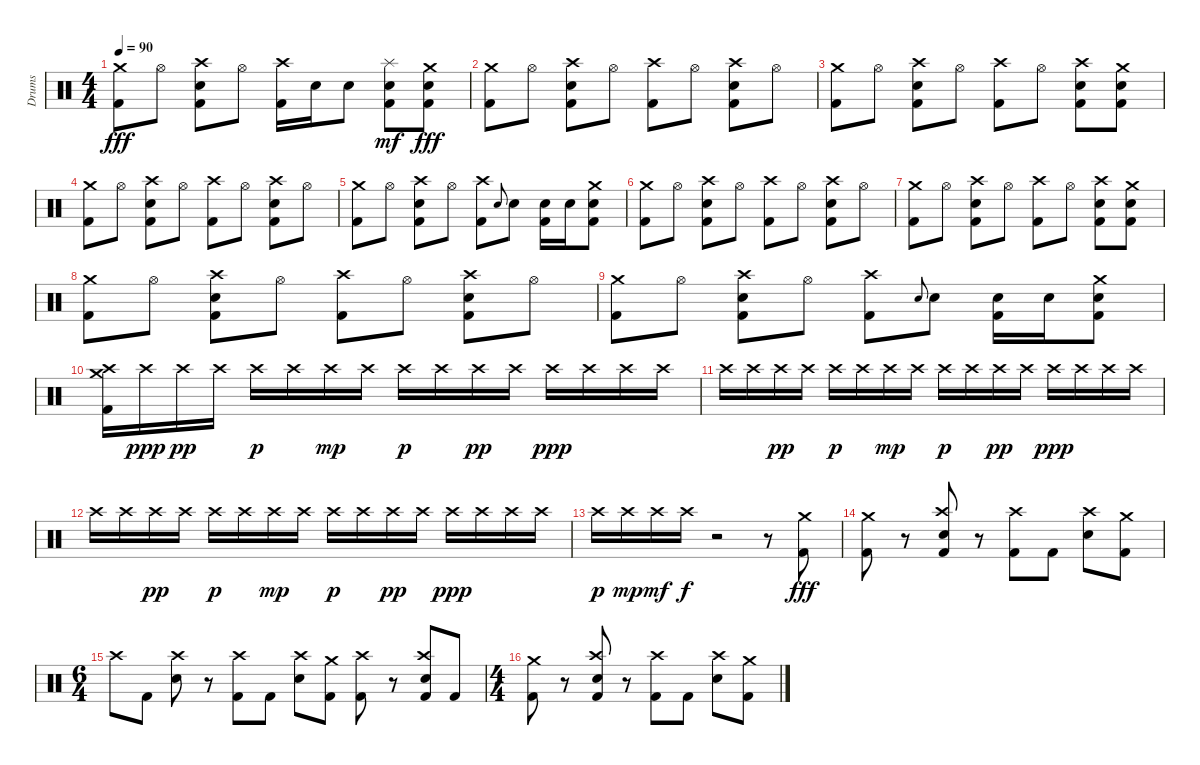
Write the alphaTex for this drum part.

\track ("Drums" "Drums") {instrument percussion}
\staff {score}
\articulation defaults
\ts (4 4)
\tempo 90
\clef neutral
\ks c
("Crash medium (hit)" "Kick (hit) 2").8{dy fff} "Hi-Hat (open)".8 ("Crash high (hit)" "Snare (hit) 2" "Kick (hit) 2").8 "Hi-Hat (open)".8 ("Crash high (hit)" "Kick (hit) 2").16 "Electric Snare (hit)".16 "Electric Snare (hit)".8 ("Splash (hit)" "Electric Snare (hit)" "Kick (hit) 2").8{dy mf} ("Crash medium (hit)" "Snare (hit) 2" "Kick (hit) 2").8{dy fff} |
("Crash medium (hit)" "Kick (hit) 2").8 "Hi-Hat (open)".8 ("Crash high (hit)" "Snare (hit) 2" "Kick (hit) 2").8 "Hi-Hat (open)".8 ("Crash high (hit)" "Kick (hit) 2").8 "Hi-Hat (open)".8 ("Crash high (hit)" "Snare (hit) 2" "Kick (hit) 2").8 "Hi-Hat (open)".8 |
("Crash medium (hit)" "Kick (hit) 2").8 "Hi-Hat (open)".8 ("Crash high (hit)" "Snare (hit) 2" "Kick (hit) 2").8 "Hi-Hat (open)".8 ("Crash high (hit)" "Kick (hit) 2").8 "Hi-Hat (open)".8 ("Crash high (hit)" "Snare (hit) 2" "Kick (hit) 2").8 ("Crash medium (hit)" "Snare (hit) 2" "Kick (hit) 2").8 |
("Crash medium (hit)" "Kick (hit) 2").8 "Hi-Hat (open)".8 ("Crash high (hit)" "Snare (hit) 2" "Kick (hit) 2").8 "Hi-Hat (open)".8 ("Crash high (hit)" "Kick (hit) 2").8 "Hi-Hat (open)".8 ("Crash high (hit)" "Snare (hit) 2" "Kick (hit) 2").8 "Hi-Hat (open)".8 |
("Crash medium (hit)" "Kick (hit) 2").8 "Hi-Hat (open)".8 ("Crash high (hit)" "Snare (hit) 2" "Kick (hit) 2").8 "Hi-Hat (open)".8 ("Crash high (hit)" "Kick (hit) 2").8 "Electric Snare (hit)".8{gr onbeat} "Electric Snare (hit)".8 ("Electric Snare (hit)" "Kick (hit) 2").16 "Electric Snare (hit)".16 ("Crash medium (hit)" "Snare (hit) 2" "Kick (hit) 2").8 |
("Crash medium (hit)" "Kick (hit) 2").8 "Hi-Hat (open)".8 ("Crash high (hit)" "Snare (hit) 2" "Kick (hit) 2").8 "Hi-Hat (open)".8 ("Crash high (hit)" "Kick (hit) 2").8 "Hi-Hat (open)".8 ("Crash high (hit)" "Snare (hit) 2" "Kick (hit) 2").8 "Hi-Hat (open)".8 |
("Crash medium (hit)" "Kick (hit) 2").8 "Hi-Hat (open)".8 ("Crash high (hit)" "Snare (hit) 2" "Kick (hit) 2").8 "Hi-Hat (open)".8 ("Crash high (hit)" "Kick (hit) 2").8 "Hi-Hat (open)".8 ("Crash high (hit)" "Snare (hit) 2" "Kick (hit) 2").8 ("Crash medium (hit)" "Snare (hit) 2" "Kick (hit) 2").8 |
("Crash medium (hit)" "Kick (hit) 2").8 "Hi-Hat (open)".8 ("Crash high (hit)" "Snare (hit) 2" "Kick (hit) 2").8 "Hi-Hat (open)".8 ("Crash high (hit)" "Kick (hit) 2").8 "Hi-Hat (open)".8 ("Crash high (hit)" "Snare (hit) 2" "Kick (hit) 2").8 "Hi-Hat (open)".8 |
("Crash medium (hit)" "Kick (hit) 2").8 "Hi-Hat (open)".8 ("Crash high (hit)" "Snare (hit) 2" "Kick (hit) 2").8 "Hi-Hat (open)".8 ("Crash high (hit)" "Kick (hit) 2").8 "Electric Snare (hit)".8{gr onbeat} "Electric Snare (hit)".8 ("Electric Snare (hit)" "Kick (hit) 2").16 "Electric Snare (hit)".16 ("Crash medium (hit)" "Snare (hit) 2" "Kick (hit) 2").8 |
("Crash high (hit)" "Crash medium (hit)" "Kick (hit) 2").16 "Crash high (hit)".16{dy ppp} "Crash high (hit)".16{dy pp} "Crash high (hit)".16 "Crash high (hit)".16{dy p} "Crash high (hit)".16 "Crash high (hit)".16{dy mp} "Crash high (hit)".16 "Crash high (hit)".16{dy p} "Crash high (hit)".16 "Crash high (hit)".16{dy pp} "Crash high (hit)".16 "Crash high (hit)".16{dy ppp} "Crash high (hit)".16 "Crash high (hit)".16 "Crash high (hit)".16 |
"Crash high (hit)".16 "Crash high (hit)".16 "Crash high (hit)".16{dy pp} "Crash high (hit)".16 "Crash high (hit)".16{dy p} "Crash high (hit)".16 "Crash high (hit)".16{dy mp} "Crash high (hit)".16 "Crash high (hit)".16{dy p} "Crash high (hit)".16 "Crash high (hit)".16{dy pp} "Crash high (hit)".16 "Crash high (hit)".16{dy ppp} "Crash high (hit)".16 "Crash high (hit)".16 "Crash high (hit)".16 |
"Crash high (hit)".16 "Crash high (hit)".16 "Crash high (hit)".16{dy pp} "Crash high (hit)".16 "Crash high (hit)".16{dy p} "Crash high (hit)".16 "Crash high (hit)".16{dy mp} "Crash high (hit)".16 "Crash high (hit)".16{dy p} "Crash high (hit)".16 "Crash high (hit)".16{dy pp} "Crash high (hit)".16 "Crash high (hit)".16{dy ppp} "Crash high (hit)".16 "Crash high (hit)".16 "Crash high (hit)".16 |
"Crash high (hit)".16{dy p} "Crash high (hit)".16{dy mp} "Crash high (hit)".16{dy mf} "Crash high (hit)".16{dy f} r.2 r.8 ("Crash medium (hit)" "Kick (hit) 2").8{dy fff} |
("Crash medium (hit)" "Kick (hit) 2").8 r.8 ("Crash high (hit)" "Electric Snare (hit)" "Kick (hit) 2").8 r.8 ("Crash high (hit)" "Kick (hit) 2").8 "Kick (hit) 2".8 ("Crash high (hit)" "Electric Snare (hit)").8 ("Crash medium (hit)" "Kick (hit) 2").8 |
\ts (6 4)
"Crash high (hit)".8 "Kick (hit) 2".8 ("Crash high (hit)" "Electric Snare (hit)").8 r.8 ("Crash high (hit)" "Kick (hit) 2").8 "Kick (hit) 2".8 ("Crash high (hit)" "Electric Snare (hit)").8 ("Crash medium (hit)" "Kick (hit) 2").8 ("Crash high (hit)" "Kick (hit) 2").8 r.8 ("Crash high (hit)" "Electric Snare (hit)" "Kick (hit) 2").8 "Kick (hit) 2".8 |
\ts (4 4)
("Crash medium (hit)" "Kick (hit) 2").8 r.8 ("Crash high (hit)" "Electric Snare (hit)" "Kick (hit) 2").8 r.8 ("Crash high (hit)" "Kick (hit) 2").8 "Kick (hit) 2".8 ("Crash high (hit)" "Electric Snare (hit)").8 ("Crash medium (hit)" "Kick (hit) 2").8
